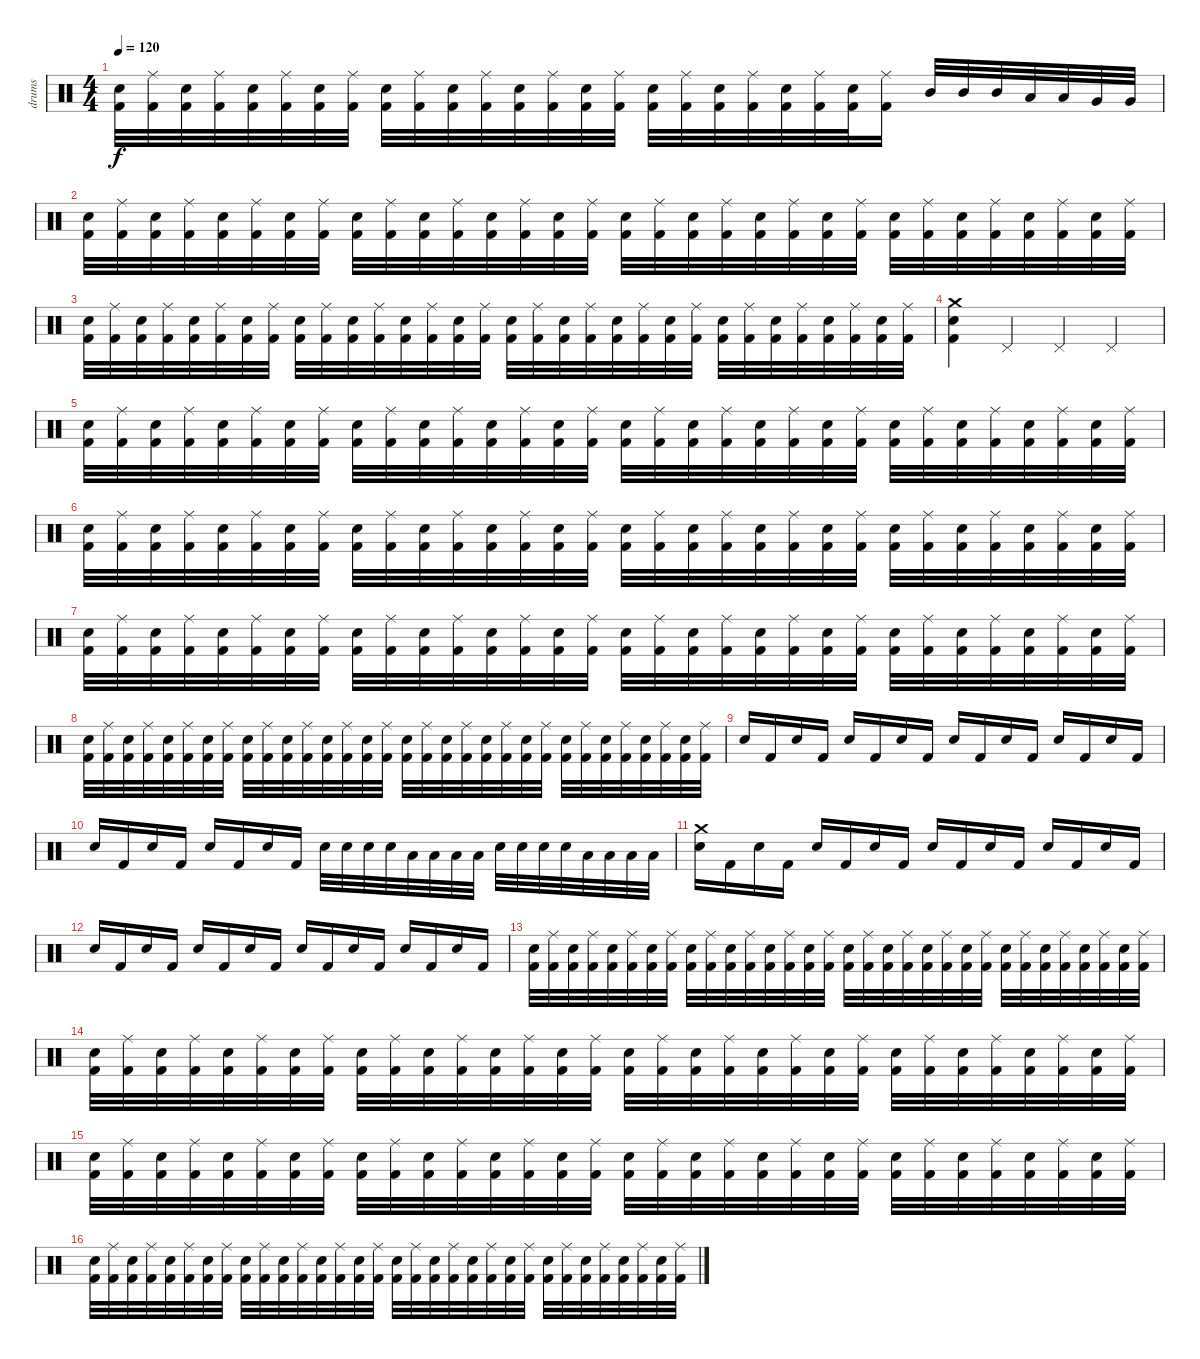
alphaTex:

\track ("drums" "drums") {instrument percussion}
\staff {score}
\articulation defaults
\ts (4 4)
\tempo 120
\clef neutral
\ks c
("Electric Snare (hit)" "Kick (hit) 2").32{dy f} ("Ride (middle)" "Kick (hit) 2").32 ("Electric Snare (hit)" "Kick (hit) 2").32 ("Ride (middle)" "Kick (hit) 2").32 ("Electric Snare (hit)" "Kick (hit) 2").32 ("Ride (middle)" "Kick (hit) 2").32 ("Electric Snare (hit)" "Kick (hit) 2").32 ("Ride (middle)" "Kick (hit) 2").32 ("Electric Snare (hit)" "Kick (hit) 2").32 ("Ride (middle)" "Kick (hit) 2").32 ("Electric Snare (hit)" "Kick (hit) 2").32 ("Ride (middle)" "Kick (hit) 2").32 ("Electric Snare (hit)" "Kick (hit) 2").32 ("Ride (middle)" "Kick (hit) 2").32 ("Electric Snare (hit)" "Kick (hit) 2").32 ("Ride (middle)" "Kick (hit) 2").32 ("Electric Snare (hit)" "Kick (hit) 2").32 ("Ride (middle)" "Kick (hit) 2").32 ("Electric Snare (hit)" "Kick (hit) 2").32 ("Ride (middle)" "Kick (hit) 2").32 ("Electric Snare (hit)" "Kick (hit) 2").32 ("Ride (middle)" "Kick (hit) 2").32 ("Electric Snare (hit)" "Kick (hit) 2").32 ("Ride (middle)" "Kick (hit) 2").16 "Mid Tom (hit)".32 "Mid Tom (hit)".32 "Mid Tom (hit)".32 "Low Tom (hit)".32 "Low Tom (hit)".32 "Very Low Tom (hit)".32 "Very Low Tom (hit)".32 |
("Electric Snare (hit)" "Kick (hit) 2").32 ("Ride (middle)" "Kick (hit) 2").32 ("Electric Snare (hit)" "Kick (hit) 2").32 ("Ride (middle)" "Kick (hit) 2").32 ("Electric Snare (hit)" "Kick (hit) 2").32 ("Ride (middle)" "Kick (hit) 2").32 ("Electric Snare (hit)" "Kick (hit) 2").32 ("Ride (middle)" "Kick (hit) 2").32 ("Electric Snare (hit)" "Kick (hit) 2").32 ("Ride (middle)" "Kick (hit) 2").32 ("Electric Snare (hit)" "Kick (hit) 2").32 ("Ride (middle)" "Kick (hit) 2").32 ("Electric Snare (hit)" "Kick (hit) 2").32 ("Ride (middle)" "Kick (hit) 2").32 ("Electric Snare (hit)" "Kick (hit) 2").32 ("Ride (middle)" "Kick (hit) 2").32 ("Electric Snare (hit)" "Kick (hit) 2").32 ("Ride (middle)" "Kick (hit) 2").32 ("Electric Snare (hit)" "Kick (hit) 2").32 ("Ride (middle)" "Kick (hit) 2").32 ("Electric Snare (hit)" "Kick (hit) 2").32 ("Ride (middle)" "Kick (hit) 2").32 ("Electric Snare (hit)" "Kick (hit) 2").32 ("Ride (middle)" "Kick (hit) 2").32 ("Electric Snare (hit)" "Kick (hit) 2").32 ("Ride (middle)" "Kick (hit) 2").32 ("Electric Snare (hit)" "Kick (hit) 2").32 ("Ride (middle)" "Kick (hit) 2").32 ("Electric Snare (hit)" "Kick (hit) 2").32 ("Ride (middle)" "Kick (hit) 2").32 ("Electric Snare (hit)" "Kick (hit) 2").32 ("Ride (middle)" "Kick (hit) 2").32 |
("Electric Snare (hit)" "Kick (hit) 2").32 ("Ride (middle)" "Kick (hit) 2").32 ("Electric Snare (hit)" "Kick (hit) 2").32 ("Ride (middle)" "Kick (hit) 2").32 ("Electric Snare (hit)" "Kick (hit) 2").32 ("Ride (middle)" "Kick (hit) 2").32 ("Electric Snare (hit)" "Kick (hit) 2").32 ("Ride (middle)" "Kick (hit) 2").32 ("Electric Snare (hit)" "Kick (hit) 2").32 ("Ride (middle)" "Kick (hit) 2").32 ("Electric Snare (hit)" "Kick (hit) 2").32 ("Ride (middle)" "Kick (hit) 2").32 ("Electric Snare (hit)" "Kick (hit) 2").32 ("Ride (middle)" "Kick (hit) 2").32 ("Electric Snare (hit)" "Kick (hit) 2").32 ("Ride (middle)" "Kick (hit) 2").32 ("Electric Snare (hit)" "Kick (hit) 2").32 ("Ride (middle)" "Kick (hit) 2").32 ("Electric Snare (hit)" "Kick (hit) 2").32 ("Ride (middle)" "Kick (hit) 2").32 ("Electric Snare (hit)" "Kick (hit) 2").32 ("Ride (middle)" "Kick (hit) 2").32 ("Electric Snare (hit)" "Kick (hit) 2").32 ("Ride (middle)" "Kick (hit) 2").32 ("Electric Snare (hit)" "Kick (hit) 2").32 ("Ride (middle)" "Kick (hit) 2").32 ("Electric Snare (hit)" "Kick (hit) 2").32 ("Ride (middle)" "Kick (hit) 2").32 ("Electric Snare (hit)" "Kick (hit) 2").32 ("Ride (middle)" "Kick (hit) 2").32 ("Electric Snare (hit)" "Kick (hit) 2").32 ("Ride (middle)" "Kick (hit) 2").32 |
("Crash medium (hit)" "Electric Snare (hit)" "Kick (hit) 2").4 "Pedal Hi-Hat (hit)".4 "Pedal Hi-Hat (hit)".4 "Pedal Hi-Hat (hit)".4 |
("Electric Snare (hit)" "Kick (hit) 2").32 ("Ride (middle)" "Kick (hit) 2").32 ("Electric Snare (hit)" "Kick (hit) 2").32 ("Ride (middle)" "Kick (hit) 2").32 ("Electric Snare (hit)" "Kick (hit) 2").32 ("Ride (middle)" "Kick (hit) 2").32 ("Electric Snare (hit)" "Kick (hit) 2").32 ("Ride (middle)" "Kick (hit) 2").32 ("Electric Snare (hit)" "Kick (hit) 2").32 ("Ride (middle)" "Kick (hit) 2").32 ("Electric Snare (hit)" "Kick (hit) 2").32 ("Ride (middle)" "Kick (hit) 2").32 ("Electric Snare (hit)" "Kick (hit) 2").32 ("Ride (middle)" "Kick (hit) 2").32 ("Electric Snare (hit)" "Kick (hit) 2").32 ("Ride (middle)" "Kick (hit) 2").32 ("Electric Snare (hit)" "Kick (hit) 2").32 ("Ride (middle)" "Kick (hit) 2").32 ("Electric Snare (hit)" "Kick (hit) 2").32 ("Ride (middle)" "Kick (hit) 2").32 ("Electric Snare (hit)" "Kick (hit) 2").32 ("Ride (middle)" "Kick (hit) 2").32 ("Electric Snare (hit)" "Kick (hit) 2").32 ("Ride (middle)" "Kick (hit) 2").32 ("Electric Snare (hit)" "Kick (hit) 2").32 ("Ride (middle)" "Kick (hit) 2").32 ("Electric Snare (hit)" "Kick (hit) 2").32 ("Ride (middle)" "Kick (hit) 2").32 ("Electric Snare (hit)" "Kick (hit) 2").32 ("Ride (middle)" "Kick (hit) 2").32 ("Electric Snare (hit)" "Kick (hit) 2").32 ("Ride (middle)" "Kick (hit) 2").32 |
("Electric Snare (hit)" "Kick (hit) 2").32 ("Ride (middle)" "Kick (hit) 2").32 ("Electric Snare (hit)" "Kick (hit) 2").32 ("Ride (middle)" "Kick (hit) 2").32 ("Electric Snare (hit)" "Kick (hit) 2").32 ("Ride (middle)" "Kick (hit) 2").32 ("Electric Snare (hit)" "Kick (hit) 2").32 ("Ride (middle)" "Kick (hit) 2").32 ("Electric Snare (hit)" "Kick (hit) 2").32 ("Ride (middle)" "Kick (hit) 2").32 ("Electric Snare (hit)" "Kick (hit) 2").32 ("Ride (middle)" "Kick (hit) 2").32 ("Electric Snare (hit)" "Kick (hit) 2").32 ("Ride (middle)" "Kick (hit) 2").32 ("Electric Snare (hit)" "Kick (hit) 2").32 ("Ride (middle)" "Kick (hit) 2").32 ("Electric Snare (hit)" "Kick (hit) 2").32 ("Ride (middle)" "Kick (hit) 2").32 ("Electric Snare (hit)" "Kick (hit) 2").32 ("Ride (middle)" "Kick (hit) 2").32 ("Electric Snare (hit)" "Kick (hit) 2").32 ("Ride (middle)" "Kick (hit) 2").32 ("Electric Snare (hit)" "Kick (hit) 2").32 ("Ride (middle)" "Kick (hit) 2").32 ("Electric Snare (hit)" "Kick (hit) 2").32 ("Ride (middle)" "Kick (hit) 2").32 ("Electric Snare (hit)" "Kick (hit) 2").32 ("Ride (middle)" "Kick (hit) 2").32 ("Electric Snare (hit)" "Kick (hit) 2").32 ("Ride (middle)" "Kick (hit) 2").32 ("Electric Snare (hit)" "Kick (hit) 2").32 ("Ride (middle)" "Kick (hit) 2").32 |
("Electric Snare (hit)" "Kick (hit) 2").32 ("Ride (middle)" "Kick (hit) 2").32 ("Electric Snare (hit)" "Kick (hit) 2").32 ("Ride (middle)" "Kick (hit) 2").32 ("Electric Snare (hit)" "Kick (hit) 2").32 ("Ride (middle)" "Kick (hit) 2").32 ("Electric Snare (hit)" "Kick (hit) 2").32 ("Ride (middle)" "Kick (hit) 2").32 ("Electric Snare (hit)" "Kick (hit) 2").32 ("Ride (middle)" "Kick (hit) 2").32 ("Electric Snare (hit)" "Kick (hit) 2").32 ("Ride (middle)" "Kick (hit) 2").32 ("Electric Snare (hit)" "Kick (hit) 2").32 ("Ride (middle)" "Kick (hit) 2").32 ("Electric Snare (hit)" "Kick (hit) 2").32 ("Ride (middle)" "Kick (hit) 2").32 ("Electric Snare (hit)" "Kick (hit) 2").32 ("Ride (middle)" "Kick (hit) 2").32 ("Electric Snare (hit)" "Kick (hit) 2").32 ("Ride (middle)" "Kick (hit) 2").32 ("Electric Snare (hit)" "Kick (hit) 2").32 ("Ride (middle)" "Kick (hit) 2").32 ("Electric Snare (hit)" "Kick (hit) 2").32 ("Ride (middle)" "Kick (hit) 2").32 ("Electric Snare (hit)" "Kick (hit) 2").32 ("Ride (middle)" "Kick (hit) 2").32 ("Electric Snare (hit)" "Kick (hit) 2").32 ("Ride (middle)" "Kick (hit) 2").32 ("Electric Snare (hit)" "Kick (hit) 2").32 ("Ride (middle)" "Kick (hit) 2").32 ("Electric Snare (hit)" "Kick (hit) 2").32 ("Ride (middle)" "Kick (hit) 2").32 |
("Electric Snare (hit)" "Kick (hit) 2").32 ("Ride (middle)" "Kick (hit) 2").32 ("Electric Snare (hit)" "Kick (hit) 2").32 ("Ride (middle)" "Kick (hit) 2").32 ("Electric Snare (hit)" "Kick (hit) 2").32 ("Ride (middle)" "Kick (hit) 2").32 ("Electric Snare (hit)" "Kick (hit) 2").32 ("Ride (middle)" "Kick (hit) 2").32 ("Electric Snare (hit)" "Kick (hit) 2").32 ("Ride (middle)" "Kick (hit) 2").32 ("Electric Snare (hit)" "Kick (hit) 2").32 ("Ride (middle)" "Kick (hit) 2").32 ("Electric Snare (hit)" "Kick (hit) 2").32 ("Ride (middle)" "Kick (hit) 2").32 ("Electric Snare (hit)" "Kick (hit) 2").32 ("Ride (middle)" "Kick (hit) 2").32 ("Electric Snare (hit)" "Kick (hit) 2").32 ("Ride (middle)" "Kick (hit) 2").32 ("Electric Snare (hit)" "Kick (hit) 2").32 ("Ride (middle)" "Kick (hit) 2").32 ("Electric Snare (hit)" "Kick (hit) 2").32 ("Ride (middle)" "Kick (hit) 2").32 ("Electric Snare (hit)" "Kick (hit) 2").32 ("Ride (middle)" "Kick (hit) 2").32 ("Electric Snare (hit)" "Kick (hit) 2").32 ("Ride (middle)" "Kick (hit) 2").32 ("Electric Snare (hit)" "Kick (hit) 2").32 ("Ride (middle)" "Kick (hit) 2").32 ("Electric Snare (hit)" "Kick (hit) 2").32 ("Ride (middle)" "Kick (hit) 2").32 ("Electric Snare (hit)" "Kick (hit) 2").32 ("Ride (middle)" "Kick (hit) 2").32 |
"Electric Snare (hit)".16 "Kick (hit) 2".16 "Electric Snare (hit)".16 "Kick (hit) 2".16 "Electric Snare (hit)".16 "Kick (hit) 2".16 "Electric Snare (hit)".16 "Kick (hit) 2".16 "Electric Snare (hit)".16 "Kick (hit) 2".16 "Electric Snare (hit)".16 "Kick (hit) 2".16 "Electric Snare (hit)".16 "Kick (hit) 2".16 "Electric Snare (hit)".16 "Kick (hit) 2".16 |
"Electric Snare (hit)".16 "Kick (hit) 2".16 "Electric Snare (hit)".16 "Kick (hit) 2".16 "Electric Snare (hit)".16 "Kick (hit) 2".16 "Electric Snare (hit)".16 "Kick (hit) 2".16 "Electric Snare (hit)".32 "Electric Snare (hit)".32 "Electric Snare (hit)".32 "Electric Snare (hit)".32 "Low Tom (hit)".32 "Low Tom (hit)".32 "Low Tom (hit)".32 "Low Tom (hit)".32 "Electric Snare (hit)".32 "Electric Snare (hit)".32 "Electric Snare (hit)".32 "Electric Snare (hit)".32 "Low Tom (hit)".32 "Low Tom (hit)".32 "Low Tom (hit)".32 "Low Tom (hit)".32 |
("Crash medium (hit)" "Electric Snare (hit)").16 "Kick (hit) 2".16 "Electric Snare (hit)".16 "Kick (hit) 2".16 "Electric Snare (hit)".16 "Kick (hit) 2".16 "Electric Snare (hit)".16 "Kick (hit) 2".16 "Electric Snare (hit)".16 "Kick (hit) 2".16 "Electric Snare (hit)".16 "Kick (hit) 2".16 "Electric Snare (hit)".16 "Kick (hit) 2".16 "Electric Snare (hit)".16 "Kick (hit) 2".16 |
"Electric Snare (hit)".16 "Kick (hit) 2".16 "Electric Snare (hit)".16 "Kick (hit) 2".16 "Electric Snare (hit)".16 "Kick (hit) 2".16 "Electric Snare (hit)".16 "Kick (hit) 2".16 "Electric Snare (hit)".16 "Kick (hit) 2".16 "Electric Snare (hit)".16 "Kick (hit) 2".16 "Electric Snare (hit)".16 "Kick (hit) 2".16 "Electric Snare (hit)".16 "Kick (hit) 2".16 |
("Electric Snare (hit)" "Kick (hit) 2").32 ("Ride (middle)" "Kick (hit) 2").32 ("Electric Snare (hit)" "Kick (hit) 2").32 ("Ride (middle)" "Kick (hit) 2").32 ("Electric Snare (hit)" "Kick (hit) 2").32 ("Ride (middle)" "Kick (hit) 2").32 ("Electric Snare (hit)" "Kick (hit) 2").32 ("Ride (middle)" "Kick (hit) 2").32 ("Electric Snare (hit)" "Kick (hit) 2").32 ("Ride (middle)" "Kick (hit) 2").32 ("Electric Snare (hit)" "Kick (hit) 2").32 ("Ride (middle)" "Kick (hit) 2").32 ("Electric Snare (hit)" "Kick (hit) 2").32 ("Ride (middle)" "Kick (hit) 2").32 ("Electric Snare (hit)" "Kick (hit) 2").32 ("Ride (middle)" "Kick (hit) 2").32 ("Electric Snare (hit)" "Kick (hit) 2").32 ("Ride (middle)" "Kick (hit) 2").32 ("Electric Snare (hit)" "Kick (hit) 2").32 ("Ride (middle)" "Kick (hit) 2").32 ("Electric Snare (hit)" "Kick (hit) 2").32 ("Ride (middle)" "Kick (hit) 2").32 ("Electric Snare (hit)" "Kick (hit) 2").32 ("Ride (middle)" "Kick (hit) 2").32 ("Electric Snare (hit)" "Kick (hit) 2").32 ("Ride (middle)" "Kick (hit) 2").32 ("Electric Snare (hit)" "Kick (hit) 2").32 ("Ride (middle)" "Kick (hit) 2").32 ("Electric Snare (hit)" "Kick (hit) 2").32 ("Ride (middle)" "Kick (hit) 2").32 ("Electric Snare (hit)" "Kick (hit) 2").32 ("Ride (middle)" "Kick (hit) 2").32 |
("Electric Snare (hit)" "Kick (hit) 2").32 ("Ride (middle)" "Kick (hit) 2").32 ("Electric Snare (hit)" "Kick (hit) 2").32 ("Ride (middle)" "Kick (hit) 2").32 ("Electric Snare (hit)" "Kick (hit) 2").32 ("Ride (middle)" "Kick (hit) 2").32 ("Electric Snare (hit)" "Kick (hit) 2").32 ("Ride (middle)" "Kick (hit) 2").32 ("Electric Snare (hit)" "Kick (hit) 2").32 ("Ride (middle)" "Kick (hit) 2").32 ("Electric Snare (hit)" "Kick (hit) 2").32 ("Ride (middle)" "Kick (hit) 2").32 ("Electric Snare (hit)" "Kick (hit) 2").32 ("Ride (middle)" "Kick (hit) 2").32 ("Electric Snare (hit)" "Kick (hit) 2").32 ("Ride (middle)" "Kick (hit) 2").32 ("Electric Snare (hit)" "Kick (hit) 2").32 ("Ride (middle)" "Kick (hit) 2").32 ("Electric Snare (hit)" "Kick (hit) 2").32 ("Ride (middle)" "Kick (hit) 2").32 ("Electric Snare (hit)" "Kick (hit) 2").32 ("Ride (middle)" "Kick (hit) 2").32 ("Electric Snare (hit)" "Kick (hit) 2").32 ("Ride (middle)" "Kick (hit) 2").32 ("Electric Snare (hit)" "Kick (hit) 2").32 ("Ride (middle)" "Kick (hit) 2").32 ("Electric Snare (hit)" "Kick (hit) 2").32 ("Ride (middle)" "Kick (hit) 2").32 ("Electric Snare (hit)" "Kick (hit) 2").32 ("Ride (middle)" "Kick (hit) 2").32 ("Electric Snare (hit)" "Kick (hit) 2").32 ("Ride (middle)" "Kick (hit) 2").32 |
("Electric Snare (hit)" "Kick (hit) 2").32 ("Ride (middle)" "Kick (hit) 2").32 ("Electric Snare (hit)" "Kick (hit) 2").32 ("Ride (middle)" "Kick (hit) 2").32 ("Electric Snare (hit)" "Kick (hit) 2").32 ("Ride (middle)" "Kick (hit) 2").32 ("Electric Snare (hit)" "Kick (hit) 2").32 ("Ride (middle)" "Kick (hit) 2").32 ("Electric Snare (hit)" "Kick (hit) 2").32 ("Ride (middle)" "Kick (hit) 2").32 ("Electric Snare (hit)" "Kick (hit) 2").32 ("Ride (middle)" "Kick (hit) 2").32 ("Electric Snare (hit)" "Kick (hit) 2").32 ("Ride (middle)" "Kick (hit) 2").32 ("Electric Snare (hit)" "Kick (hit) 2").32 ("Ride (middle)" "Kick (hit) 2").32 ("Electric Snare (hit)" "Kick (hit) 2").32 ("Ride (middle)" "Kick (hit) 2").32 ("Electric Snare (hit)" "Kick (hit) 2").32 ("Ride (middle)" "Kick (hit) 2").32 ("Electric Snare (hit)" "Kick (hit) 2").32 ("Ride (middle)" "Kick (hit) 2").32 ("Electric Snare (hit)" "Kick (hit) 2").32 ("Ride (middle)" "Kick (hit) 2").32 ("Electric Snare (hit)" "Kick (hit) 2").32 ("Ride (middle)" "Kick (hit) 2").32 ("Electric Snare (hit)" "Kick (hit) 2").32 ("Ride (middle)" "Kick (hit) 2").32 ("Electric Snare (hit)" "Kick (hit) 2").32 ("Ride (middle)" "Kick (hit) 2").32 ("Electric Snare (hit)" "Kick (hit) 2").32 ("Ride (middle)" "Kick (hit) 2").32 |
("Electric Snare (hit)" "Kick (hit) 2").32 ("Ride (middle)" "Kick (hit) 2").32 ("Electric Snare (hit)" "Kick (hit) 2").32 ("Ride (middle)" "Kick (hit) 2").32 ("Electric Snare (hit)" "Kick (hit) 2").32 ("Ride (middle)" "Kick (hit) 2").32 ("Electric Snare (hit)" "Kick (hit) 2").32 ("Ride (middle)" "Kick (hit) 2").32 ("Electric Snare (hit)" "Kick (hit) 2").32 ("Ride (middle)" "Kick (hit) 2").32 ("Electric Snare (hit)" "Kick (hit) 2").32 ("Ride (middle)" "Kick (hit) 2").32 ("Electric Snare (hit)" "Kick (hit) 2").32 ("Ride (middle)" "Kick (hit) 2").32 ("Electric Snare (hit)" "Kick (hit) 2").32 ("Ride (middle)" "Kick (hit) 2").32 ("Electric Snare (hit)" "Kick (hit) 2").32 ("Ride (middle)" "Kick (hit) 2").32 ("Electric Snare (hit)" "Kick (hit) 2").32 ("Ride (middle)" "Kick (hit) 2").32 ("Electric Snare (hit)" "Kick (hit) 2").32 ("Ride (middle)" "Kick (hit) 2").32 ("Electric Snare (hit)" "Kick (hit) 2").32 ("Ride (middle)" "Kick (hit) 2").32 ("Electric Snare (hit)" "Kick (hit) 2").32 ("Ride (middle)" "Kick (hit) 2").32 ("Electric Snare (hit)" "Kick (hit) 2").32 ("Ride (middle)" "Kick (hit) 2").32 ("Electric Snare (hit)" "Kick (hit) 2").32 ("Ride (middle)" "Kick (hit) 2").32 ("Electric Snare (hit)" "Kick (hit) 2").32 ("Ride (middle)" "Kick (hit) 2").32
